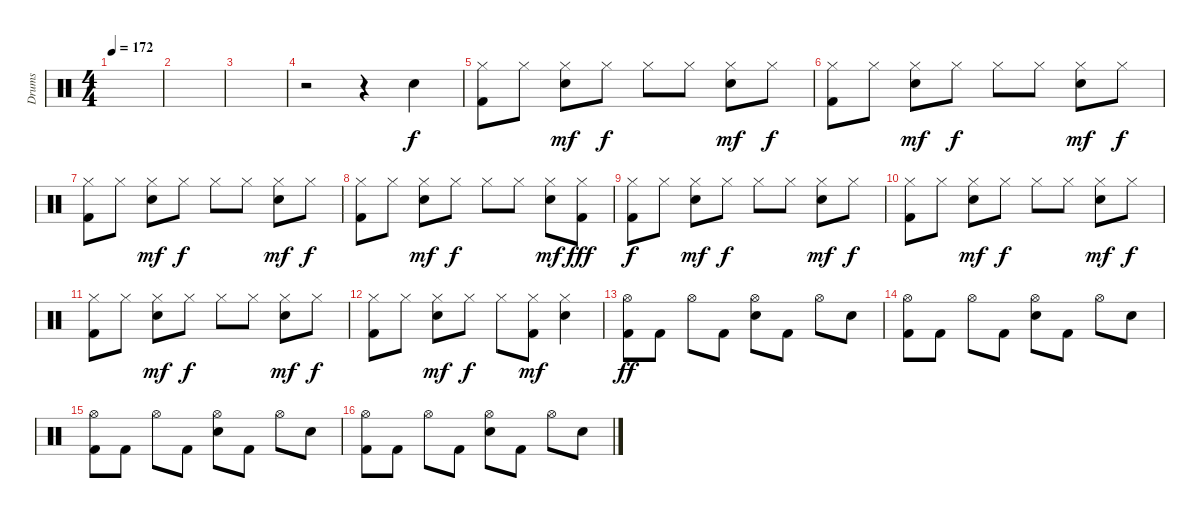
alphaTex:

\track ("Drums" "Drums") {instrument percussion}
\staff {score}
\articulation defaults
\ts (4 4)
\tempo 172
\clef neutral
\ks c
|
|
|
r.2 r.4 "Snare (hit) 2".4{dy f} |
("Hi-Hat (closed)" "Kick (hit) 2").8 "Hi-Hat (closed)".8 ("Hi-Hat (closed)" "Snare (hit) 2").8{dy mf} "Hi-Hat (closed)".8{dy f} "Hi-Hat (closed)".8 "Hi-Hat (closed)".8 ("Hi-Hat (closed)" "Snare (hit) 2").8{dy mf} "Hi-Hat (closed)".8{dy f} |
("Hi-Hat (closed)" "Kick (hit) 2").8 "Hi-Hat (closed)".8 ("Hi-Hat (closed)" "Snare (hit) 2").8{dy mf} "Hi-Hat (closed)".8{dy f} "Hi-Hat (closed)".8 "Hi-Hat (closed)".8 ("Hi-Hat (closed)" "Snare (hit) 2").8{dy mf} "Hi-Hat (closed)".8{dy f} |
("Hi-Hat (closed)" "Kick (hit) 2").8 "Hi-Hat (closed)".8 ("Hi-Hat (closed)" "Snare (hit) 2").8{dy mf} "Hi-Hat (closed)".8{dy f} "Hi-Hat (closed)".8 "Hi-Hat (closed)".8 ("Hi-Hat (closed)" "Snare (hit) 2").8{dy mf} "Hi-Hat (closed)".8{dy f} |
("Hi-Hat (closed)" "Kick (hit) 2").8 "Hi-Hat (closed)".8 ("Hi-Hat (closed)" "Snare (hit) 2").8{dy mf} "Hi-Hat (closed)".8{dy f} "Hi-Hat (closed)".8 "Hi-Hat (closed)".8 ("Hi-Hat (closed)" "Snare (hit) 2").8{dy mf} ("Hi-Hat (closed)" "Kick (hit) 2").8{dy fff} |
("Hi-Hat (closed)" "Kick (hit) 2").8{dy f} "Hi-Hat (closed)".8 ("Hi-Hat (closed)" "Snare (hit) 2").8{dy mf} "Hi-Hat (closed)".8{dy f} "Hi-Hat (closed)".8 "Hi-Hat (closed)".8 ("Hi-Hat (closed)" "Snare (hit) 2").8{dy mf} "Hi-Hat (closed)".8{dy f} |
("Hi-Hat (closed)" "Kick (hit) 2").8 "Hi-Hat (closed)".8 ("Hi-Hat (closed)" "Snare (hit) 2").8{dy mf} "Hi-Hat (closed)".8{dy f} "Hi-Hat (closed)".8 "Hi-Hat (closed)".8 ("Hi-Hat (closed)" "Snare (hit) 2").8{dy mf} "Hi-Hat (closed)".8{dy f} |
("Hi-Hat (closed)" "Kick (hit) 2").8 "Hi-Hat (closed)".8 ("Hi-Hat (closed)" "Snare (hit) 2").8{dy mf} "Hi-Hat (closed)".8{dy f} "Hi-Hat (closed)".8 "Hi-Hat (closed)".8 ("Hi-Hat (closed)" "Snare (hit) 2").8{dy mf} "Hi-Hat (closed)".8{dy f} |
("Hi-Hat (closed)" "Kick (hit) 2").8 "Hi-Hat (closed)".8 ("Hi-Hat (closed)" "Snare (hit) 2").8{dy mf} "Hi-Hat (closed)".8{dy f} "Hi-Hat (closed)".8 ("Hi-Hat (closed)" "Kick (hit) 2").8{dy mf} ("Hi-Hat (closed)" "Snare (hit) 2").4 |
("Hi-Hat (open)" "Kick (hit) 2").8{dy ff} "Kick (hit) 2".8 "Hi-Hat (open)".8 "Kick (hit) 2".8 ("Hi-Hat (open)" "Snare (hit) 2").8 "Kick (hit) 2".8 "Hi-Hat (open)".8 "Snare (hit) 2".8 |
("Hi-Hat (open)" "Kick (hit) 2").8 "Kick (hit) 2".8 "Hi-Hat (open)".8 "Kick (hit) 2".8 ("Hi-Hat (open)" "Snare (hit) 2").8 "Kick (hit) 2".8 "Hi-Hat (open)".8 "Snare (hit) 2".8 |
("Hi-Hat (open)" "Kick (hit) 2").8 "Kick (hit) 2".8 "Hi-Hat (open)".8 "Kick (hit) 2".8 ("Hi-Hat (open)" "Snare (hit) 2").8 "Kick (hit) 2".8 "Hi-Hat (open)".8 "Snare (hit) 2".8 |
("Hi-Hat (open)" "Kick (hit) 2").8 "Kick (hit) 2".8 "Hi-Hat (open)".8 "Kick (hit) 2".8 ("Hi-Hat (open)" "Snare (hit) 2").8 "Kick (hit) 2".8 "Hi-Hat (open)".8 "Snare (hit) 2".8
